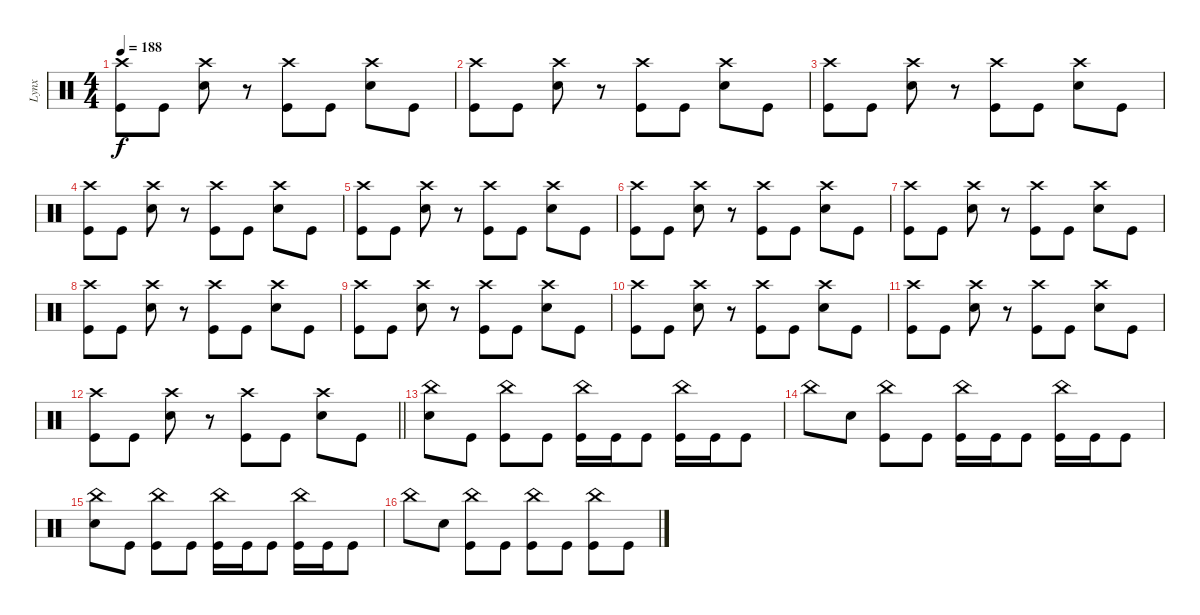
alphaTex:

\track ("Lynx" "Lynx") {instrument percussion}
\staff {score}
\articulation defaults
\ts (4 4)
\tempo 188
\clef neutral
\ks c
("Crash high (hit)" "Kick (hit)").8{dy f} "Kick (hit)".8 ("Crash high (hit)" "Electric Snare (hit)").8 r.8 ("Crash high (hit)" "Kick (hit)").8 "Kick (hit)".8 ("Crash high (hit)" "Electric Snare (hit)").8 "Kick (hit)".8 |
("Crash high (hit)" "Kick (hit)").8 "Kick (hit)".8 ("Crash high (hit)" "Electric Snare (hit)").8 r.8 ("Crash high (hit)" "Kick (hit)").8 "Kick (hit)".8 ("Crash high (hit)" "Electric Snare (hit)").8 "Kick (hit)".8 |
("Crash high (hit)" "Kick (hit)").8 "Kick (hit)".8 ("Crash high (hit)" "Electric Snare (hit)").8 r.8 ("Crash high (hit)" "Kick (hit)").8 "Kick (hit)".8 ("Crash high (hit)" "Electric Snare (hit)").8 "Kick (hit)".8 |
("Crash high (hit)" "Kick (hit)").8 "Kick (hit)".8 ("Crash high (hit)" "Electric Snare (hit)").8 r.8 ("Crash high (hit)" "Kick (hit)").8 "Kick (hit)".8 ("Crash high (hit)" "Electric Snare (hit)").8 "Kick (hit)".8 |
("Crash high (hit)" "Kick (hit)").8 "Kick (hit)".8 ("Crash high (hit)" "Electric Snare (hit)").8 r.8 ("Crash high (hit)" "Kick (hit)").8 "Kick (hit)".8 ("Crash high (hit)" "Electric Snare (hit)").8 "Kick (hit)".8 |
("Crash high (hit)" "Kick (hit)").8 "Kick (hit)".8 ("Crash high (hit)" "Electric Snare (hit)").8 r.8 ("Crash high (hit)" "Kick (hit)").8 "Kick (hit)".8 ("Crash high (hit)" "Electric Snare (hit)").8 "Kick (hit)".8 |
("Crash high (hit)" "Kick (hit)").8 "Kick (hit)".8 ("Crash high (hit)" "Electric Snare (hit)").8 r.8 ("Crash high (hit)" "Kick (hit)").8 "Kick (hit)".8 ("Crash high (hit)" "Electric Snare (hit)").8 "Kick (hit)".8 |
("Crash high (hit)" "Kick (hit)").8 "Kick (hit)".8 ("Crash high (hit)" "Electric Snare (hit)").8 r.8 ("Crash high (hit)" "Kick (hit)").8 "Kick (hit)".8 ("Crash high (hit)" "Electric Snare (hit)").8 "Kick (hit)".8 |
("Crash high (hit)" "Kick (hit)").8 "Kick (hit)".8 ("Crash high (hit)" "Electric Snare (hit)").8 r.8 ("Crash high (hit)" "Kick (hit)").8 "Kick (hit)".8 ("Crash high (hit)" "Electric Snare (hit)").8 "Kick (hit)".8 |
("Crash high (hit)" "Kick (hit)").8 "Kick (hit)".8 ("Crash high (hit)" "Electric Snare (hit)").8 r.8 ("Crash high (hit)" "Kick (hit)").8 "Kick (hit)".8 ("Crash high (hit)" "Electric Snare (hit)").8 "Kick (hit)".8 |
("Crash high (hit)" "Kick (hit)").8 "Kick (hit)".8 ("Crash high (hit)" "Electric Snare (hit)").8 r.8 ("Crash high (hit)" "Kick (hit)").8 "Kick (hit)".8 ("Crash high (hit)" "Electric Snare (hit)").8 "Kick (hit)".8 |
\barLineRight lightlight
("Crash high (hit)" "Kick (hit)").8 "Kick (hit)".8 ("Crash high (hit)" "Electric Snare (hit)").8 r.8 ("Crash high (hit)" "Kick (hit)").8 "Kick (hit)".8 ("Crash high (hit)" "Electric Snare (hit)").8 "Kick (hit)".8 |
("Electric Snare (hit)" "China (hit)").8 "Kick (hit)".8 ("Kick (hit)" "China (hit)").8 "Kick (hit)".8 ("Kick (hit)" "China (hit)").16 "Kick (hit)".16 "Kick (hit)".8 ("Kick (hit)" "China (hit)").16 "Kick (hit)".16 "Kick (hit)".8 |
"China (hit)".8 "Electric Snare (hit)".8 ("Kick (hit)" "China (hit)").8 "Kick (hit)".8 ("Kick (hit)" "China (hit)").16 "Kick (hit)".16 "Kick (hit)".8 ("Kick (hit)" "China (hit)").16 "Kick (hit)".16 "Kick (hit)".8 |
("Electric Snare (hit)" "China (hit)").8 "Kick (hit)".8 ("Kick (hit)" "China (hit)").8 "Kick (hit)".8 ("Kick (hit)" "China (hit)").16 "Kick (hit)".16 "Kick (hit)".8 ("Kick (hit)" "China (hit)").16 "Kick (hit)".16 "Kick (hit)".8 |
"China (hit)".8 "Electric Snare (hit)".8 ("Kick (hit)" "China (hit)").8 "Kick (hit)".8 ("Kick (hit)" "China (hit)").8 "Kick (hit)".8 ("Kick (hit)" "China (hit)").8 "Kick (hit)".8
